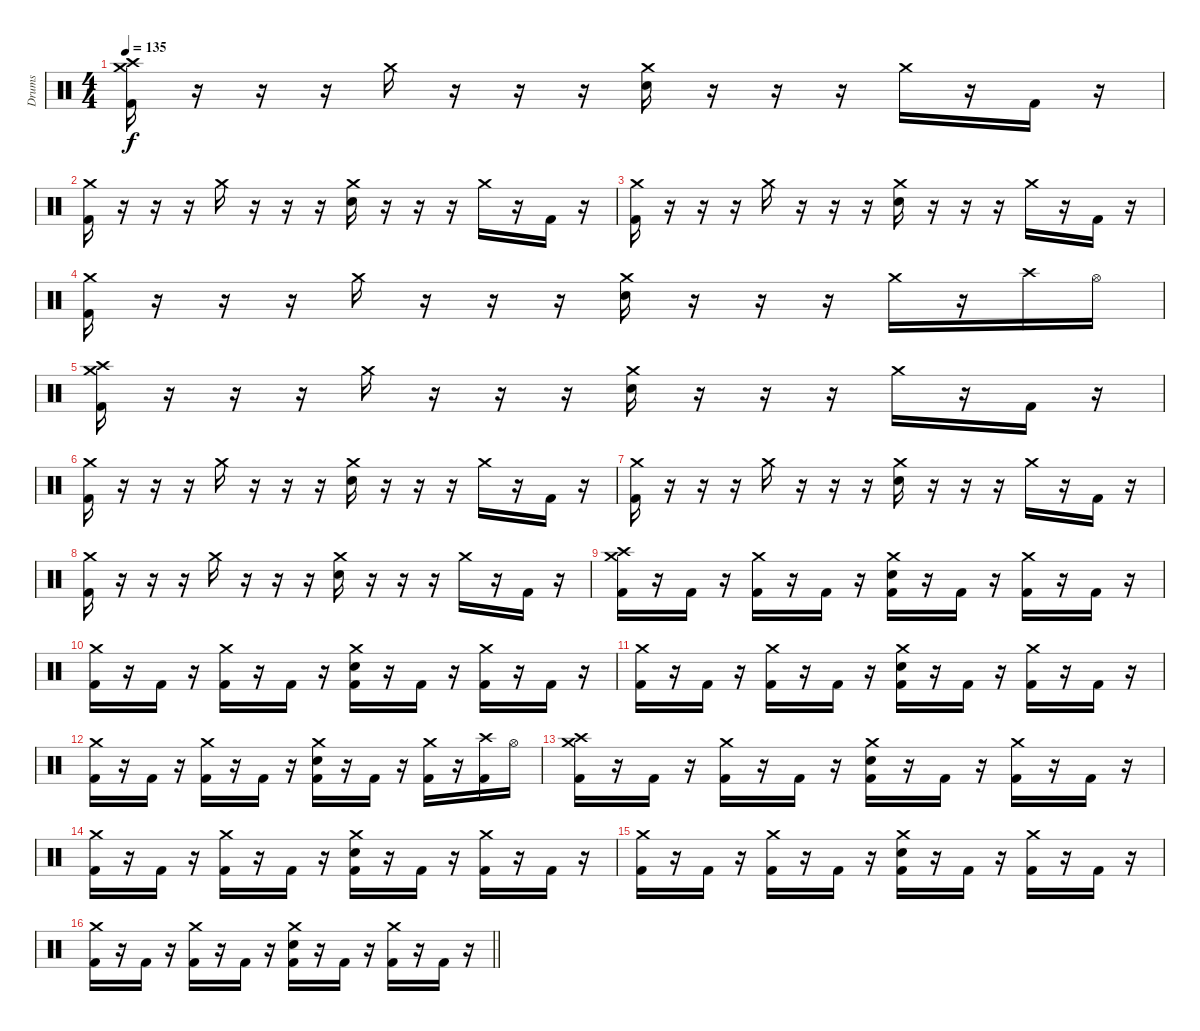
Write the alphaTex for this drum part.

\track ("Drums" "Drums") {instrument percussion}
\staff {score}
\articulation defaults
\ts (4 4)
\tempo 135
\clef neutral
\ks c
("Crash medium (hit)" "Crash high (hit)" "Kick (hit) 2").16{dy f} r.16 r.16 r.16 "Crash medium (hit)".16 r.16 r.16 r.16 ("Crash medium (hit)" "Electric Snare (hit)").16 r.16 r.16 r.16 "Crash medium (hit)".16 r.16 "Kick (hit) 2".16 r.16 |
("Crash medium (hit)" "Kick (hit) 2").16 r.16 r.16 r.16 "Crash medium (hit)".16 r.16 r.16 r.16 ("Crash medium (hit)" "Electric Snare (hit)").16 r.16 r.16 r.16 "Crash medium (hit)".16 r.16 "Kick (hit) 2".16 r.16 |
("Crash medium (hit)" "Kick (hit) 2").16 r.16 r.16 r.16 "Crash medium (hit)".16 r.16 r.16 r.16 ("Crash medium (hit)" "Electric Snare (hit)").16 r.16 r.16 r.16 "Crash medium (hit)".16 r.16 "Kick (hit) 2".16 r.16 |
("Crash medium (hit)" "Kick (hit) 2").16 r.16 r.16 r.16 "Crash medium (hit)".16 r.16 r.16 r.16 ("Crash medium (hit)" "Electric Snare (hit)").16 r.16 r.16 r.16 "Crash medium (hit)".16 r.16 "Crash high (hit)".16 "Hi-Hat (open)".16 |
("Crash medium (hit)" "Crash high (hit)" "Kick (hit) 2").16 r.16 r.16 r.16 "Crash medium (hit)".16 r.16 r.16 r.16 ("Crash medium (hit)" "Electric Snare (hit)").16 r.16 r.16 r.16 "Crash medium (hit)".16 r.16 "Kick (hit) 2".16 r.16 |
("Crash medium (hit)" "Kick (hit) 2").16 r.16 r.16 r.16 "Crash medium (hit)".16 r.16 r.16 r.16 ("Crash medium (hit)" "Electric Snare (hit)").16 r.16 r.16 r.16 "Crash medium (hit)".16 r.16 "Kick (hit) 2".16 r.16 |
("Crash medium (hit)" "Kick (hit) 2").16 r.16 r.16 r.16 "Crash medium (hit)".16 r.16 r.16 r.16 ("Crash medium (hit)" "Electric Snare (hit)").16 r.16 r.16 r.16 "Crash medium (hit)".16 r.16 "Kick (hit) 2".16 r.16 |
("Crash medium (hit)" "Kick (hit) 2").16 r.16 r.16 r.16 "Crash medium (hit)".16 r.16 r.16 r.16 ("Crash medium (hit)" "Electric Snare (hit)").16 r.16 r.16 r.16 "Crash medium (hit)".16 r.16 "Kick (hit) 2".16 r.16 |
("Crash medium (hit)" "Crash high (hit)" "Kick (hit) 2").16 r.16 "Kick (hit) 2".16 r.16 ("Crash medium (hit)" "Kick (hit) 2").16 r.16 "Kick (hit) 2".16 r.16 ("Crash medium (hit)" "Electric Snare (hit)" "Kick (hit) 2").16 r.16 "Kick (hit) 2".16 r.16 ("Crash medium (hit)" "Kick (hit) 2").16 r.16 "Kick (hit) 2".16 r.16 |
("Crash medium (hit)" "Kick (hit) 2").16 r.16 "Kick (hit) 2".16 r.16 ("Crash medium (hit)" "Kick (hit) 2").16 r.16 "Kick (hit) 2".16 r.16 ("Crash medium (hit)" "Electric Snare (hit)" "Kick (hit) 2").16 r.16 "Kick (hit) 2".16 r.16 ("Crash medium (hit)" "Kick (hit) 2").16 r.16 "Kick (hit) 2".16 r.16 |
("Crash medium (hit)" "Kick (hit) 2").16 r.16 "Kick (hit) 2".16 r.16 ("Crash medium (hit)" "Kick (hit) 2").16 r.16 "Kick (hit) 2".16 r.16 ("Crash medium (hit)" "Electric Snare (hit)" "Kick (hit) 2").16 r.16 "Kick (hit) 2".16 r.16 ("Crash medium (hit)" "Kick (hit) 2").16 r.16 "Kick (hit) 2".16 r.16 |
("Crash medium (hit)" "Kick (hit) 2").16 r.16 "Kick (hit) 2".16 r.16 ("Crash medium (hit)" "Kick (hit) 2").16 r.16 "Kick (hit) 2".16 r.16 ("Crash medium (hit)" "Electric Snare (hit)" "Kick (hit) 2").16 r.16 "Kick (hit) 2".16 r.16 ("Crash medium (hit)" "Kick (hit) 2").16 r.16 ("Crash high (hit)" "Kick (hit) 2").16 "Hi-Hat (open)".16 |
("Crash medium (hit)" "Crash high (hit)" "Kick (hit) 2").16 r.16 "Kick (hit) 2".16 r.16 ("Crash medium (hit)" "Kick (hit) 2").16 r.16 "Kick (hit) 2".16 r.16 ("Crash medium (hit)" "Electric Snare (hit)" "Kick (hit) 2").16 r.16 "Kick (hit) 2".16 r.16 ("Crash medium (hit)" "Kick (hit) 2").16 r.16 "Kick (hit) 2".16 r.16 |
("Crash medium (hit)" "Kick (hit) 2").16 r.16 "Kick (hit) 2".16 r.16 ("Crash medium (hit)" "Kick (hit) 2").16 r.16 "Kick (hit) 2".16 r.16 ("Crash medium (hit)" "Electric Snare (hit)" "Kick (hit) 2").16 r.16 "Kick (hit) 2".16 r.16 ("Crash medium (hit)" "Kick (hit) 2").16 r.16 "Kick (hit) 2".16 r.16 |
("Crash medium (hit)" "Kick (hit) 2").16 r.16 "Kick (hit) 2".16 r.16 ("Crash medium (hit)" "Kick (hit) 2").16 r.16 "Kick (hit) 2".16 r.16 ("Crash medium (hit)" "Electric Snare (hit)" "Kick (hit) 2").16 r.16 "Kick (hit) 2".16 r.16 ("Crash medium (hit)" "Kick (hit) 2").16 r.16 "Kick (hit) 2".16 r.16 |
\barLineRight lightlight
("Crash medium (hit)" "Kick (hit) 2").16 r.16 "Kick (hit) 2".16 r.16 ("Crash medium (hit)" "Kick (hit) 2").16 r.16 "Kick (hit) 2".16 r.16 ("Crash medium (hit)" "Electric Snare (hit)" "Kick (hit) 2").16 r.16 "Kick (hit) 2".16 r.16 ("Crash medium (hit)" "Kick (hit) 2").16 r.16 "Kick (hit) 2".16 r.16
